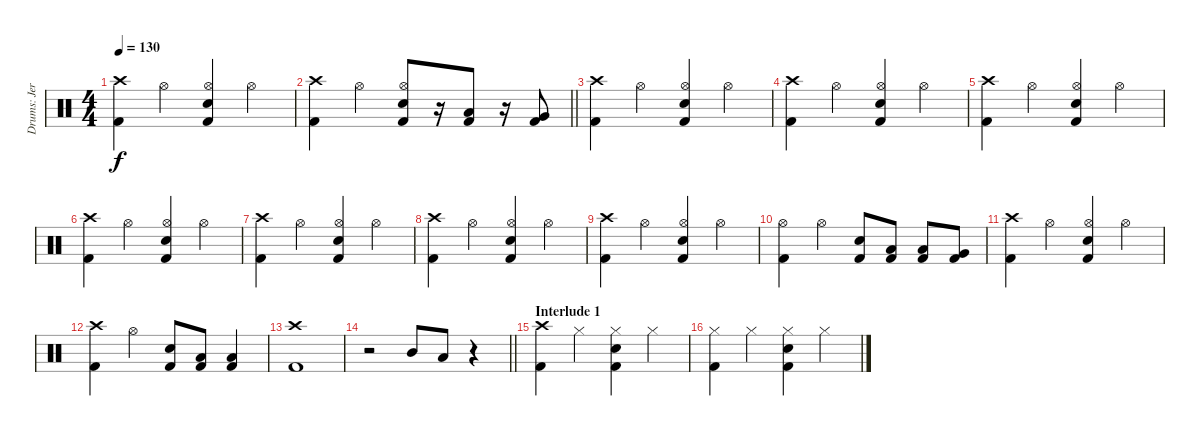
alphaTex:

\track ("Drums: Jere Luokkamäki" "Drums: Jer") {instrument percussion}
\staff {score}
\articulation defaults
\ts (4 4)
\tempo 130
\clef neutral
\ks aminor
("Crash high (hit)" "Kick (hit) 2").4{dy f} "Hi-Hat (open)".4 ("Hi-Hat (open)" "Electric Snare (hit)" "Kick (hit) 2").4 "Hi-Hat (open)".4 |
\barLineRight lightlight
("Crash high (hit)" "Kick (hit) 2").4 "Hi-Hat (open)".4 ("Hi-Hat (open)" "Electric Snare (hit)" "Kick (hit) 2").8 r.16 ("Low Tom (hit)" "Kick (hit) 2").8 r.16 ("Very Low Tom (hit)" "Kick (hit) 2").8 |
("Crash high (hit)" "Kick (hit) 2").4 "Hi-Hat (open)".4 ("Hi-Hat (open)" "Electric Snare (hit)" "Kick (hit) 2").4 "Hi-Hat (open)".4 |
("Crash high (hit)" "Kick (hit) 2").4 "Hi-Hat (open)".4 ("Hi-Hat (open)" "Electric Snare (hit)" "Kick (hit) 2").4 "Hi-Hat (open)".4 |
("Crash high (hit)" "Kick (hit) 2").4 "Hi-Hat (open)".4 ("Hi-Hat (open)" "Electric Snare (hit)" "Kick (hit) 2").4 "Hi-Hat (open)".4 |
("Crash high (hit)" "Kick (hit) 2").4 "Hi-Hat (open)".4 ("Hi-Hat (open)" "Electric Snare (hit)" "Kick (hit) 2").4 "Hi-Hat (open)".4 |
("Crash high (hit)" "Kick (hit) 2").4 "Hi-Hat (open)".4 ("Hi-Hat (open)" "Electric Snare (hit)" "Kick (hit) 2").4 "Hi-Hat (open)".4 |
("Crash high (hit)" "Kick (hit) 2").4 "Hi-Hat (open)".4 ("Hi-Hat (open)" "Electric Snare (hit)" "Kick (hit) 2").4 "Hi-Hat (open)".4 |
("Crash high (hit)" "Kick (hit) 2").4 "Hi-Hat (open)".4 ("Hi-Hat (open)" "Electric Snare (hit)" "Kick (hit) 2").4 "Hi-Hat (open)".4 |
("Hi-Hat (open)" "Kick (hit) 2").4 "Hi-Hat (open)".4 ("Electric Snare (hit)" "Kick (hit) 2").8 ("Low Tom (hit)" "Kick (hit) 2").8 ("Low Tom (hit)" "Kick (hit) 2").8 ("Very Low Tom (hit)" "Kick (hit) 2").8 |
("Crash high (hit)" "Kick (hit) 2").4 "Hi-Hat (open)".4 ("Hi-Hat (open)" "Electric Snare (hit)" "Kick (hit) 2").4 "Hi-Hat (open)".4 |
("Crash high (hit)" "Kick (hit) 2").4 "Hi-Hat (open)".4 ("Electric Snare (hit)" "Kick (hit) 2").8 ("Low Tom (hit)" "Kick (hit) 2").8 ("Low Tom (hit)" "Kick (hit) 2").4 |
("Crash high (hit)" "Kick (hit) 2").1 |
\barLineRight lightlight
r.2 "Mid Tom (hit)".8 "Low Tom (hit)".8 r.4 |
\section ("" "Interlude 1")
("Crash high (hit)" "Kick (hit) 2").4 "Hi-Hat (closed)".4 ("Hi-Hat (closed)" "Electric Snare (hit)" "Kick (hit) 2").4 "Hi-Hat (closed)".4 |
("Hi-Hat (closed)" "Kick (hit) 2").4 "Hi-Hat (closed)".4 ("Hi-Hat (closed)" "Electric Snare (hit)" "Kick (hit) 2").4 "Hi-Hat (closed)".4
